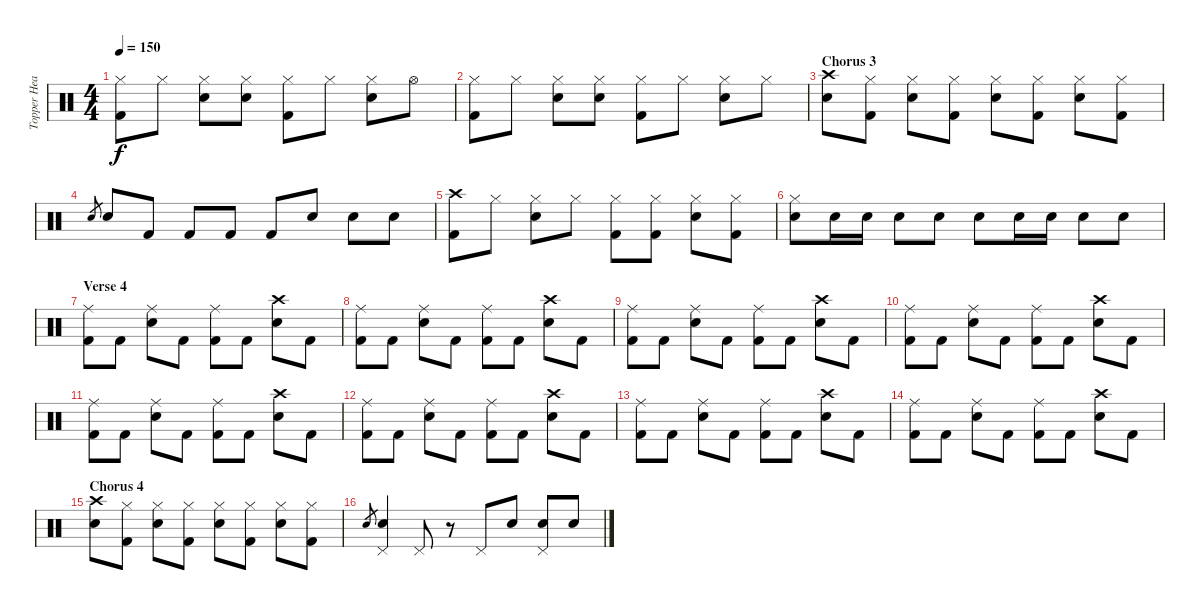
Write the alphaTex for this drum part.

\track ("Topper Headon - Drums" "Topper Hea") {instrument percussion}
\staff {score}
\articulation defaults
\ts (4 4)
\tempo 150
\clef neutral
\ks c
("Hi-Hat (closed)" "Kick (hit) 2").8{dy f} "Hi-Hat (closed)".8 ("Hi-Hat (closed)" "Electric Snare (hit)").8 ("Hi-Hat (closed)" "Electric Snare (hit)").8 ("Hi-Hat (closed)" "Kick (hit) 2").8 "Hi-Hat (closed)".8 ("Hi-Hat (closed)" "Electric Snare (hit)").8 "Hi-Hat (open)".8 |
("Hi-Hat (closed)" "Kick (hit) 2").8 "Hi-Hat (closed)".8 ("Hi-Hat (closed)" "Electric Snare (hit)").8 ("Hi-Hat (closed)" "Electric Snare (hit)").8 ("Hi-Hat (closed)" "Kick (hit) 2").8 "Hi-Hat (closed)".8 ("Hi-Hat (closed)" "Electric Snare (hit)").8 "Hi-Hat (closed)".8 |
\section ("" "Chorus 3")
("Crash high (hit)" "Electric Snare (hit)").8 ("Hi-Hat (closed)" "Kick (hit) 2").8 ("Hi-Hat (closed)" "Electric Snare (hit)").8 ("Hi-Hat (closed)" "Kick (hit) 2").8 ("Hi-Hat (closed)" "Electric Snare (hit)").8 ("Hi-Hat (closed)" "Kick (hit) 2").8 ("Hi-Hat (closed)" "Electric Snare (hit)").8 ("Hi-Hat (closed)" "Kick (hit) 2").8 |
"Electric Snare (hit)".8{gr} "Electric Snare (hit)".8 "Kick (hit) 2".8 "Kick (hit) 2".8 "Kick (hit) 2".8 "Kick (hit) 2".8 "Electric Snare (hit)".8 "Electric Snare (hit)".8 "Electric Snare (hit)".8 |
("Crash high (hit)" "Kick (hit) 2").8 "Hi-Hat (closed)".8 ("Hi-Hat (closed)" "Electric Snare (hit)").8 "Hi-Hat (closed)".8 ("Hi-Hat (closed)" "Kick (hit) 2").8 ("Hi-Hat (closed)" "Kick (hit) 2").8 ("Hi-Hat (closed)" "Electric Snare (hit)").8 ("Hi-Hat (closed)" "Kick (hit) 2").8 |
("Hi-Hat (closed)" "Electric Snare (hit)").8 "Electric Snare (hit)".16 "Electric Snare (hit)".16 "Electric Snare (hit)".8 "Electric Snare (hit)".8 "Electric Snare (hit)".8 "Electric Snare (hit)".16 "Electric Snare (hit)".16 "Electric Snare (hit)".8 "Electric Snare (hit)".8 |
\section ("" "Verse 4")
("Ride (middle)" "Kick (hit) 2").8 "Kick (hit) 2".8 ("Ride (middle)" "Electric Snare (hit)").8 "Kick (hit) 2".8 ("Ride (middle)" "Kick (hit) 2").8 "Kick (hit) 2".8 ("Crash high (hit)" "Electric Snare (hit)").8 "Kick (hit) 2".8 |
("Ride (middle)" "Kick (hit) 2").8 "Kick (hit) 2".8 ("Ride (middle)" "Electric Snare (hit)").8 "Kick (hit) 2".8 ("Ride (middle)" "Kick (hit) 2").8 "Kick (hit) 2".8 ("Crash high (hit)" "Electric Snare (hit)").8 "Kick (hit) 2".8 |
("Ride (middle)" "Kick (hit) 2").8 "Kick (hit) 2".8 ("Ride (middle)" "Electric Snare (hit)").8 "Kick (hit) 2".8 ("Ride (middle)" "Kick (hit) 2").8 "Kick (hit) 2".8 ("Crash high (hit)" "Electric Snare (hit)").8 "Kick (hit) 2".8 |
("Ride (middle)" "Kick (hit) 2").8 "Kick (hit) 2".8 ("Ride (middle)" "Electric Snare (hit)").8 "Kick (hit) 2".8 ("Ride (middle)" "Kick (hit) 2").8 "Kick (hit) 2".8 ("Crash high (hit)" "Electric Snare (hit)").8 "Kick (hit) 2".8 |
("Ride (middle)" "Kick (hit) 2").8 "Kick (hit) 2".8 ("Ride (middle)" "Electric Snare (hit)").8 "Kick (hit) 2".8 ("Ride (middle)" "Kick (hit) 2").8 "Kick (hit) 2".8 ("Crash high (hit)" "Electric Snare (hit)").8 "Kick (hit) 2".8 |
("Ride (middle)" "Kick (hit) 2").8 "Kick (hit) 2".8 ("Ride (middle)" "Electric Snare (hit)").8 "Kick (hit) 2".8 ("Ride (middle)" "Kick (hit) 2").8 "Kick (hit) 2".8 ("Crash high (hit)" "Electric Snare (hit)").8 "Kick (hit) 2".8 |
("Ride (middle)" "Kick (hit) 2").8 "Kick (hit) 2".8 ("Ride (middle)" "Electric Snare (hit)").8 "Kick (hit) 2".8 ("Ride (middle)" "Kick (hit) 2").8 "Kick (hit) 2".8 ("Crash high (hit)" "Electric Snare (hit)").8 "Kick (hit) 2".8 |
("Ride (middle)" "Kick (hit) 2").8 "Kick (hit) 2".8 ("Ride (middle)" "Electric Snare (hit)").8 "Kick (hit) 2".8 ("Ride (middle)" "Kick (hit) 2").8 "Kick (hit) 2".8 ("Crash high (hit)" "Electric Snare (hit)").8 "Kick (hit) 2".8 |
\section ("" "Chorus 4")
("Crash high (hit)" "Electric Snare (hit)").8 ("Hi-Hat (closed)" "Kick (hit) 2").8 ("Hi-Hat (closed)" "Electric Snare (hit)").8 ("Hi-Hat (closed)" "Kick (hit) 2").8 ("Hi-Hat (closed)" "Electric Snare (hit)").8 ("Hi-Hat (closed)" "Kick (hit) 2").8 ("Hi-Hat (closed)" "Electric Snare (hit)").8 ("Hi-Hat (closed)" "Kick (hit) 2").8 |
"Electric Snare (hit)".8{gr} ("Pedal Hi-Hat (hit)" "Electric Snare (hit)").4 "Pedal Hi-Hat (hit)".8 r.8 "Pedal Hi-Hat (hit)".8 "Electric Snare (hit)".8 ("Pedal Hi-Hat (hit)" "Electric Snare (hit)").8 "Electric Snare (hit)".8
